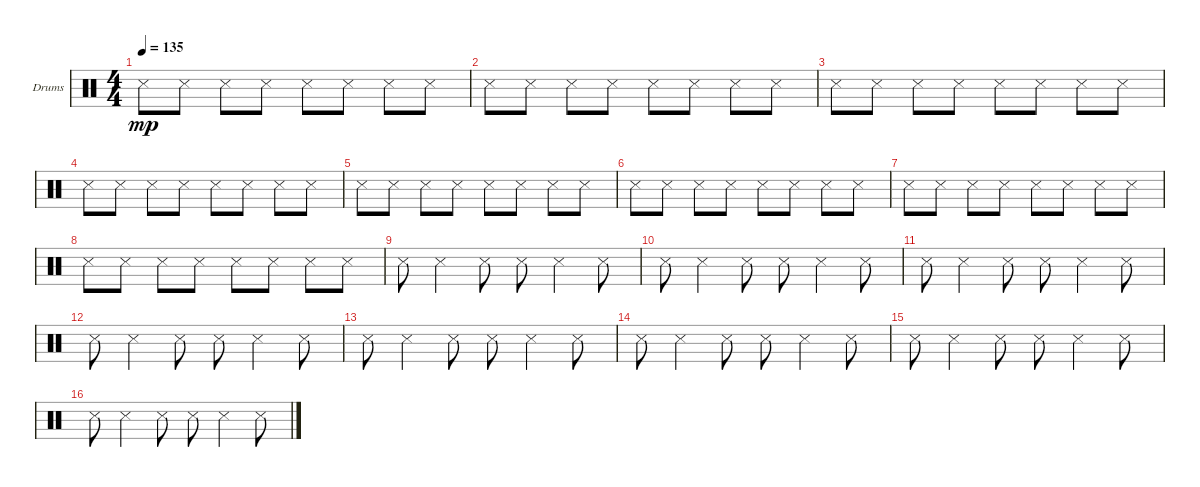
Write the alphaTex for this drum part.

\defaultSystemsLayout 4
\bracketExtendMode groupsimilarinstruments
\firstSystemTrackNameOrientation horizontal
\otherSystemsTrackNameOrientation horizontal
\track ("Helders" "Drums") {instrument percussion}
\staff {score}
\articulation defaults
\ts (4 4)
\tempo 135
\clef neutral
\ks c "Snare (side stick) 3".8{dy mp} "Snare (side stick) 3".8 "Snare (side stick) 3".8 "Snare (side stick) 3".8 "Snare (side stick) 3".8 "Snare (side stick) 3".8 "Snare (side stick) 3".8 "Snare (side stick) 3".8
|
"Snare (side stick) 3".8 "Snare (side stick) 3".8 "Snare (side stick) 3".8 "Snare (side stick) 3".8 "Snare (side stick) 3".8 "Snare (side stick) 3".8 "Snare (side stick) 3".8 "Snare (side stick) 3".8 |
"Snare (side stick) 3".8 "Snare (side stick) 3".8 "Snare (side stick) 3".8 "Snare (side stick) 3".8 "Snare (side stick) 3".8 "Snare (side stick) 3".8 "Snare (side stick) 3".8 "Snare (side stick) 3".8 |
"Snare (side stick) 3".8 "Snare (side stick) 3".8 "Snare (side stick) 3".8 "Snare (side stick) 3".8 "Snare (side stick) 3".8 "Snare (side stick) 3".8 "Snare (side stick) 3".8 "Snare (side stick) 3".8 |
"Snare (side stick) 3".8 "Snare (side stick) 3".8 "Snare (side stick) 3".8 "Snare (side stick) 3".8 "Snare (side stick) 3".8 "Snare (side stick) 3".8 "Snare (side stick) 3".8 "Snare (side stick) 3".8 |
"Snare (side stick) 3".8 "Snare (side stick) 3".8 "Snare (side stick) 3".8 "Snare (side stick) 3".8 "Snare (side stick) 3".8 "Snare (side stick) 3".8 "Snare (side stick) 3".8 "Snare (side stick) 3".8 |
"Snare (side stick) 3".8 "Snare (side stick) 3".8 "Snare (side stick) 3".8 "Snare (side stick) 3".8 "Snare (side stick) 3".8 "Snare (side stick) 3".8 "Snare (side stick) 3".8 "Snare (side stick) 3".8 |
"Snare (side stick) 3".8 "Snare (side stick) 3".8 "Snare (side stick) 3".8 "Snare (side stick) 3".8 "Snare (side stick) 3".8 "Snare (side stick) 3".8 "Snare (side stick) 3".8 "Snare (side stick) 3".8 |
"Snare (side stick) 3".8 "Snare (side stick) 3".4 "Snare (side stick) 3".8 "Snare (side stick) 3".8 "Snare (side stick) 3".4 "Snare (side stick) 3".8 |
"Snare (side stick) 3".8 "Snare (side stick) 3".4 "Snare (side stick) 3".8 "Snare (side stick) 3".8 "Snare (side stick) 3".4 "Snare (side stick) 3".8 |
"Snare (side stick) 3".8 "Snare (side stick) 3".4 "Snare (side stick) 3".8 "Snare (side stick) 3".8 "Snare (side stick) 3".4 "Snare (side stick) 3".8 |
"Snare (side stick) 3".8 "Snare (side stick) 3".4 "Snare (side stick) 3".8 "Snare (side stick) 3".8 "Snare (side stick) 3".4 "Snare (side stick) 3".8 |
"Snare (side stick) 3".8 "Snare (side stick) 3".4 "Snare (side stick) 3".8 "Snare (side stick) 3".8 "Snare (side stick) 3".4 "Snare (side stick) 3".8 |
"Snare (side stick) 3".8 "Snare (side stick) 3".4 "Snare (side stick) 3".8 "Snare (side stick) 3".8 "Snare (side stick) 3".4 "Snare (side stick) 3".8 |
"Snare (side stick) 3".8 "Snare (side stick) 3".4 "Snare (side stick) 3".8 "Snare (side stick) 3".8 "Snare (side stick) 3".4 "Snare (side stick) 3".8 |
"Snare (side stick) 3".8 "Snare (side stick) 3".4 "Snare (side stick) 3".8 "Snare (side stick) 3".8 "Snare (side stick) 3".4 "Snare (side stick) 3".8
